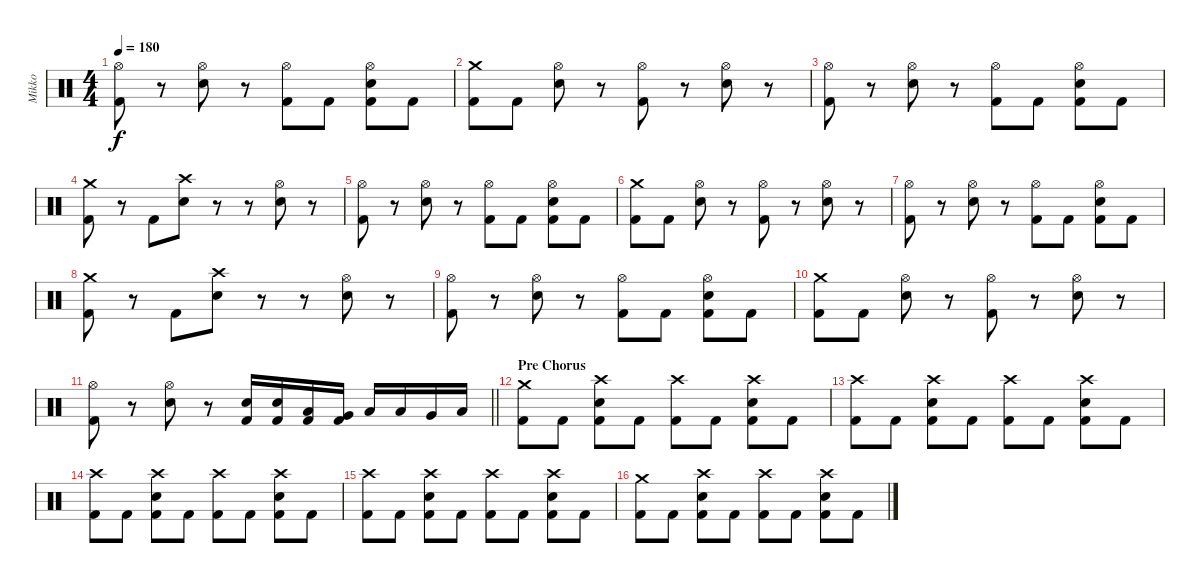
\track ("Mikko" "Mikko") {instrument percussion}
\staff {score}
\articulation defaults
\ts (4 4)
\tempo 180
\clef neutral
\ks c
("Hi-Hat (open)" "Kick (hit) 2").8{dy f} r.8 ("Hi-Hat (open)" "Electric Snare (hit)").8 r.8 ("Hi-Hat (open)" "Kick (hit) 2").8 "Kick (hit) 2".8 ("Hi-Hat (open)" "Electric Snare (hit)" "Kick (hit) 2").8 "Kick (hit) 2".8 |
("Crash medium (hit)" "Kick (hit) 2").8 "Kick (hit) 2".8 ("Hi-Hat (open)" "Electric Snare (hit)").8 r.8 ("Hi-Hat (open)" "Kick (hit) 2").8 r.8 ("Hi-Hat (open)" "Electric Snare (hit)").8 r.8 |
("Hi-Hat (open)" "Kick (hit) 2").8 r.8 ("Hi-Hat (open)" "Electric Snare (hit)").8 r.8 ("Hi-Hat (open)" "Kick (hit) 2").8 "Kick (hit) 2".8 ("Hi-Hat (open)" "Electric Snare (hit)" "Kick (hit) 2").8 "Kick (hit) 2".8 |
("Crash medium (hit)" "Kick (hit) 2").8 r.8 "Kick (hit) 2".8 ("Crash high (hit)" "Electric Snare (hit)").8 r.8 r.8 ("Hi-Hat (open)" "Electric Snare (hit)").8 r.8 |
("Hi-Hat (open)" "Kick (hit) 2").8 r.8 ("Hi-Hat (open)" "Electric Snare (hit)").8 r.8 ("Hi-Hat (open)" "Kick (hit) 2").8 "Kick (hit) 2".8 ("Hi-Hat (open)" "Electric Snare (hit)" "Kick (hit) 2").8 "Kick (hit) 2".8 |
("Crash medium (hit)" "Kick (hit) 2").8 "Kick (hit) 2".8 ("Hi-Hat (open)" "Electric Snare (hit)").8 r.8 ("Hi-Hat (open)" "Kick (hit) 2").8 r.8 ("Hi-Hat (open)" "Electric Snare (hit)").8 r.8 |
("Hi-Hat (open)" "Kick (hit) 2").8 r.8 ("Hi-Hat (open)" "Electric Snare (hit)").8 r.8 ("Hi-Hat (open)" "Kick (hit) 2").8 "Kick (hit) 2".8 ("Hi-Hat (open)" "Electric Snare (hit)" "Kick (hit) 2").8 "Kick (hit) 2".8 |
("Crash medium (hit)" "Kick (hit) 2").8 r.8 "Kick (hit) 2".8 ("Crash high (hit)" "Electric Snare (hit)").8 r.8 r.8 ("Hi-Hat (open)" "Electric Snare (hit)").8 r.8 |
("Hi-Hat (open)" "Kick (hit) 2").8 r.8 ("Hi-Hat (open)" "Electric Snare (hit)").8 r.8 ("Hi-Hat (open)" "Kick (hit) 2").8 "Kick (hit) 2".8 ("Hi-Hat (open)" "Electric Snare (hit)" "Kick (hit) 2").8 "Kick (hit) 2".8 |
("Crash medium (hit)" "Kick (hit) 2").8 "Kick (hit) 2".8 ("Hi-Hat (open)" "Electric Snare (hit)").8 r.8 ("Hi-Hat (open)" "Kick (hit) 2").8 r.8 ("Hi-Hat (open)" "Electric Snare (hit)").8 r.8 |
\barLineRight lightlight
("Hi-Hat (open)" "Kick (hit) 2").8 r.8 ("Hi-Hat (open)" "Electric Snare (hit)").8 r.8 ("Electric Snare (hit)" "Kick (hit) 2").16 ("Electric Snare (hit)" "Kick (hit) 2").16 ("Low Tom (hit)" "Kick (hit) 2").16 ("Very Low Tom (hit)" "Kick (hit) 2").16 "Low Floor Tom (hit)".16 "Low Tom (hit)".16 "Very Low Tom (hit)".16 "Low Floor Tom (hit)".16 |
\section ("" "Pre Chorus")
("Crash medium (hit)" "Kick (hit) 2").8 "Kick (hit) 2".8 ("Crash high (hit)" "Electric Snare (hit)" "Kick (hit) 2").8 "Kick (hit) 2".8 ("Crash high (hit)" "Kick (hit) 2").8 "Kick (hit) 2".8 ("Crash high (hit)" "Electric Snare (hit)" "Kick (hit) 2").8 "Kick (hit) 2".8 |
("Crash high (hit)" "Kick (hit) 2").8 "Kick (hit) 2".8 ("Crash high (hit)" "Electric Snare (hit)" "Kick (hit) 2").8 "Kick (hit) 2".8 ("Crash high (hit)" "Kick (hit) 2").8 "Kick (hit) 2".8 ("Crash high (hit)" "Electric Snare (hit)" "Kick (hit) 2").8 "Kick (hit) 2".8 |
("Crash high (hit)" "Kick (hit) 2").8 "Kick (hit) 2".8 ("Crash high (hit)" "Electric Snare (hit)" "Kick (hit) 2").8 "Kick (hit) 2".8 ("Crash high (hit)" "Kick (hit) 2").8 "Kick (hit) 2".8 ("Crash high (hit)" "Electric Snare (hit)" "Kick (hit) 2").8 "Kick (hit) 2".8 |
("Crash high (hit)" "Kick (hit) 2").8 "Kick (hit) 2".8 ("Crash high (hit)" "Electric Snare (hit)" "Kick (hit) 2").8 "Kick (hit) 2".8 ("Crash high (hit)" "Kick (hit) 2").8 "Kick (hit) 2".8 ("Crash high (hit)" "Electric Snare (hit)" "Kick (hit) 2").8 "Kick (hit) 2".8 |
("Crash medium (hit)" "Kick (hit) 2").8 "Kick (hit) 2".8 ("Crash high (hit)" "Electric Snare (hit)" "Kick (hit) 2").8 "Kick (hit) 2".8 ("Crash high (hit)" "Kick (hit) 2").8 "Kick (hit) 2".8 ("Crash high (hit)" "Electric Snare (hit)" "Kick (hit) 2").8 "Kick (hit) 2".8
